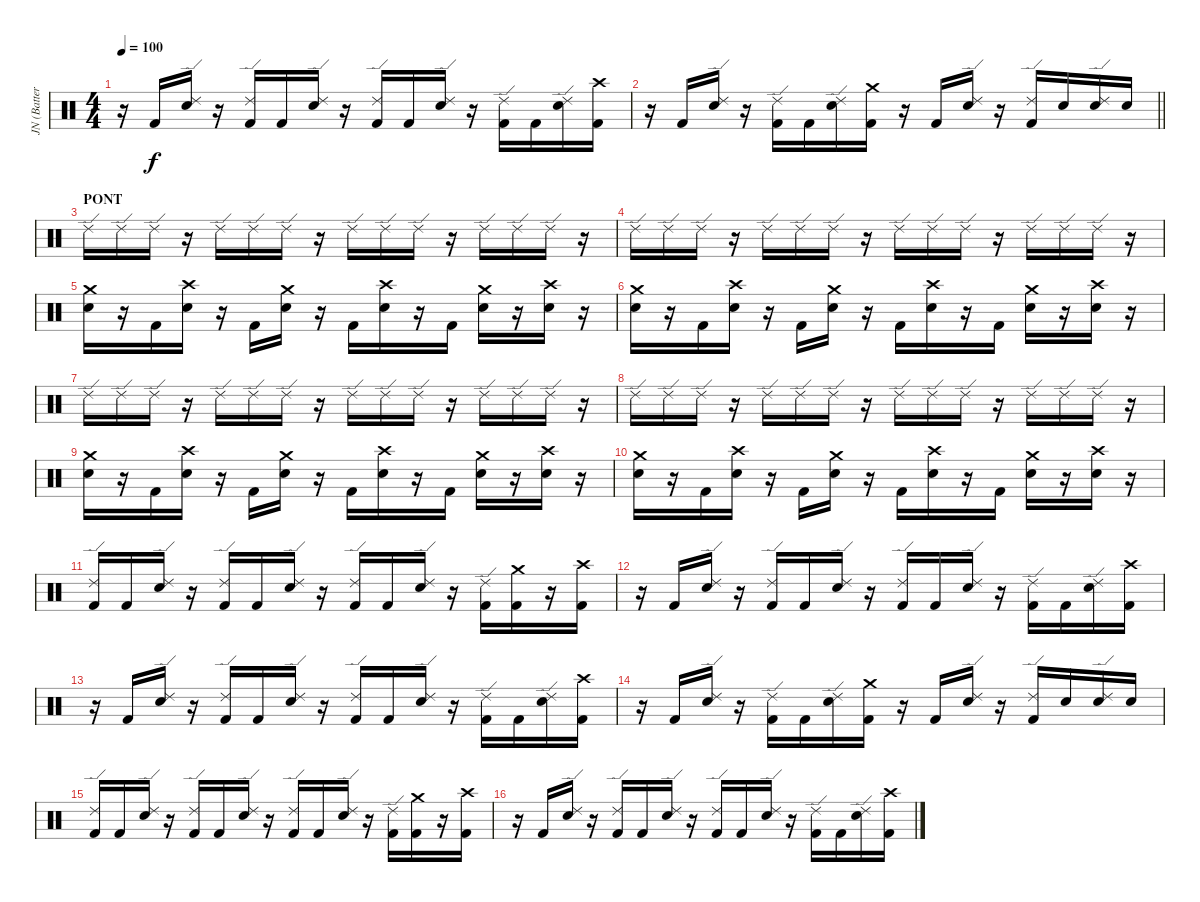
\track ("JN (Batterie)" "JN (Batter") {instrument percussion}
\staff {score}
\articulation defaults
\ts (4 4)
\tempo 100
\clef neutral
\ks c
r.16{dy f} "Kick (hit) 2".16 ("Ride (edge) 2" "Electric Snare (hit)").16 r.16 ("Ride (edge) 2" "Kick (hit) 2").16 "Kick (hit) 2".16 ("Ride (edge) 2" "Electric Snare (hit)").16 r.16 ("Ride (edge) 2" "Kick (hit) 2").16 "Kick (hit) 2".16 ("Ride (edge) 2" "Electric Snare (hit)").16 r.16 ("Ride (edge) 2" "Kick (hit) 2").16 "Kick (hit) 2".16 ("Ride (edge) 2" "Electric Snare (hit)").16 ("Crash high (hit)" "Kick (hit) 2").16 |
\barLineRight lightlight
r.16 "Kick (hit) 2".16 ("Ride (edge) 2" "Electric Snare (hit)").16 r.16 ("Ride (edge) 2" "Kick (hit) 2").16 "Kick (hit) 2".16 ("Ride (edge) 2" "Electric Snare (hit)").16 ("Crash medium (hit)" "Kick (hit) 2").16 r.16 "Kick (hit) 2".16 ("Ride (edge) 2" "Electric Snare (hit)").16 r.16 ("Ride (edge) 2" "Kick (hit) 2").16 "Electric Snare (hit)".16 ("Ride (edge) 2" "Electric Snare (hit)").16 "Electric Snare (hit)".16 |
\section ("" "PONT")
"Ride (edge) 2".16 "Ride (edge) 2".16 "Ride (edge) 2".16 r.16 "Ride (edge) 2".16 "Ride (edge) 2".16 "Ride (edge) 2".16 r.16 "Ride (edge) 2".16 "Ride (edge) 2".16 "Ride (edge) 2".16 r.16 "Ride (edge) 2".16 "Ride (edge) 2".16 "Ride (edge) 2".16 r.16 |
"Ride (edge) 2".16 "Ride (edge) 2".16 "Ride (edge) 2".16 r.16 "Ride (edge) 2".16 "Ride (edge) 2".16 "Ride (edge) 2".16 r.16 "Ride (edge) 2".16 "Ride (edge) 2".16 "Ride (edge) 2".16 r.16 "Ride (edge) 2".16 "Ride (edge) 2".16 "Ride (edge) 2".16 r.16 |
("Crash medium (hit)" "Electric Snare (hit)").16 r.16 "Kick (hit) 2".16 ("Crash high (hit)" "Electric Snare (hit)").16 r.16 "Kick (hit) 2".16 ("Crash medium (hit)" "Electric Snare (hit)").16 r.16 "Kick (hit) 2".16 ("Crash high (hit)" "Electric Snare (hit)").16 r.16 "Kick (hit) 2".16 ("Crash medium (hit)" "Electric Snare (hit)").16 r.16 ("Crash high (hit)" "Electric Snare (hit)").16 r.16 |
("Crash medium (hit)" "Electric Snare (hit)").16 r.16 "Kick (hit) 2".16 ("Crash high (hit)" "Electric Snare (hit)").16 r.16 "Kick (hit) 2".16 ("Crash medium (hit)" "Electric Snare (hit)").16 r.16 "Kick (hit) 2".16 ("Crash high (hit)" "Electric Snare (hit)").16 r.16 "Kick (hit) 2".16 ("Crash medium (hit)" "Electric Snare (hit)").16 r.16 ("Crash high (hit)" "Electric Snare (hit)").16 r.16 |
"Ride (edge) 2".16 "Ride (edge) 2".16 "Ride (edge) 2".16 r.16 "Ride (edge) 2".16 "Ride (edge) 2".16 "Ride (edge) 2".16 r.16 "Ride (edge) 2".16 "Ride (edge) 2".16 "Ride (edge) 2".16 r.16 "Ride (edge) 2".16 "Ride (edge) 2".16 "Ride (edge) 2".16 r.16 |
"Ride (edge) 2".16 "Ride (edge) 2".16 "Ride (edge) 2".16 r.16 "Ride (edge) 2".16 "Ride (edge) 2".16 "Ride (edge) 2".16 r.16 "Ride (edge) 2".16 "Ride (edge) 2".16 "Ride (edge) 2".16 r.16 "Ride (edge) 2".16 "Ride (edge) 2".16 "Ride (edge) 2".16 r.16 |
("Crash medium (hit)" "Electric Snare (hit)").16 r.16 "Kick (hit) 2".16 ("Crash high (hit)" "Electric Snare (hit)").16 r.16 "Kick (hit) 2".16 ("Crash medium (hit)" "Electric Snare (hit)").16 r.16 "Kick (hit) 2".16 ("Crash high (hit)" "Electric Snare (hit)").16 r.16 "Kick (hit) 2".16 ("Crash medium (hit)" "Electric Snare (hit)").16 r.16 ("Crash high (hit)" "Electric Snare (hit)").16 r.16 |
("Crash medium (hit)" "Electric Snare (hit)").16 r.16 "Kick (hit) 2".16 ("Crash high (hit)" "Electric Snare (hit)").16 r.16 "Kick (hit) 2".16 ("Crash medium (hit)" "Electric Snare (hit)").16 r.16 "Kick (hit) 2".16 ("Crash high (hit)" "Electric Snare (hit)").16 r.16 "Kick (hit) 2".16 ("Crash medium (hit)" "Electric Snare (hit)").16 r.16 ("Crash high (hit)" "Electric Snare (hit)").16 r.16 |
("Ride (edge) 2" "Kick (hit) 2").16 "Kick (hit) 2".16 ("Ride (edge) 2" "Electric Snare (hit)").16 r.16 ("Ride (edge) 2" "Kick (hit) 2").16 "Kick (hit) 2".16 ("Ride (edge) 2" "Electric Snare (hit)").16 r.16 ("Ride (edge) 2" "Kick (hit) 2").16 "Kick (hit) 2".16 ("Ride (edge) 2" "Electric Snare (hit)").16 r.16 ("Ride (edge) 2" "Kick (hit) 2").16 ("Crash medium (hit)" "Kick (hit) 2").16 r.16 ("Crash high (hit)" "Kick (hit) 2").16 |
r.16 "Kick (hit) 2".16 ("Ride (edge) 2" "Electric Snare (hit)").16 r.16 ("Ride (edge) 2" "Kick (hit) 2").16 "Kick (hit) 2".16 ("Ride (edge) 2" "Electric Snare (hit)").16 r.16 ("Ride (edge) 2" "Kick (hit) 2").16 "Kick (hit) 2".16 ("Ride (edge) 2" "Electric Snare (hit)").16 r.16 ("Ride (edge) 2" "Kick (hit) 2").16 "Kick (hit) 2".16 ("Ride (edge) 2" "Electric Snare (hit)").16 ("Crash high (hit)" "Kick (hit) 2").16 |
r.16 "Kick (hit) 2".16 ("Ride (edge) 2" "Electric Snare (hit)").16 r.16 ("Ride (edge) 2" "Kick (hit) 2").16 "Kick (hit) 2".16 ("Ride (edge) 2" "Electric Snare (hit)").16 r.16 ("Ride (edge) 2" "Kick (hit) 2").16 "Kick (hit) 2".16 ("Ride (edge) 2" "Electric Snare (hit)").16 r.16 ("Ride (edge) 2" "Kick (hit) 2").16 "Kick (hit) 2".16 ("Ride (edge) 2" "Electric Snare (hit)").16 ("Crash high (hit)" "Kick (hit) 2").16 |
r.16 "Kick (hit) 2".16 ("Ride (edge) 2" "Electric Snare (hit)").16 r.16 ("Ride (edge) 2" "Kick (hit) 2").16 "Kick (hit) 2".16 ("Ride (edge) 2" "Electric Snare (hit)").16 ("Crash medium (hit)" "Kick (hit) 2").16 r.16 "Kick (hit) 2".16 ("Ride (edge) 2" "Electric Snare (hit)").16 r.16 ("Ride (edge) 2" "Kick (hit) 2").16 "Electric Snare (hit)".16 ("Ride (edge) 2" "Electric Snare (hit)").16 "Electric Snare (hit)".16 |
("Ride (edge) 2" "Kick (hit) 2").16 "Kick (hit) 2".16 ("Ride (edge) 2" "Electric Snare (hit)").16 r.16 ("Ride (edge) 2" "Kick (hit) 2").16 "Kick (hit) 2".16 ("Ride (edge) 2" "Electric Snare (hit)").16 r.16 ("Ride (edge) 2" "Kick (hit) 2").16 "Kick (hit) 2".16 ("Ride (edge) 2" "Electric Snare (hit)").16 r.16 ("Ride (edge) 2" "Kick (hit) 2").16 ("Crash medium (hit)" "Kick (hit) 2").16 r.16 ("Crash high (hit)" "Kick (hit) 2").16 |
r.16 "Kick (hit) 2".16 ("Ride (edge) 2" "Electric Snare (hit)").16 r.16 ("Ride (edge) 2" "Kick (hit) 2").16 "Kick (hit) 2".16 ("Ride (edge) 2" "Electric Snare (hit)").16 r.16 ("Ride (edge) 2" "Kick (hit) 2").16 "Kick (hit) 2".16 ("Ride (edge) 2" "Electric Snare (hit)").16 r.16 ("Ride (edge) 2" "Kick (hit) 2").16 "Kick (hit) 2".16 ("Ride (edge) 2" "Electric Snare (hit)").16 ("Crash high (hit)" "Kick (hit) 2").16
